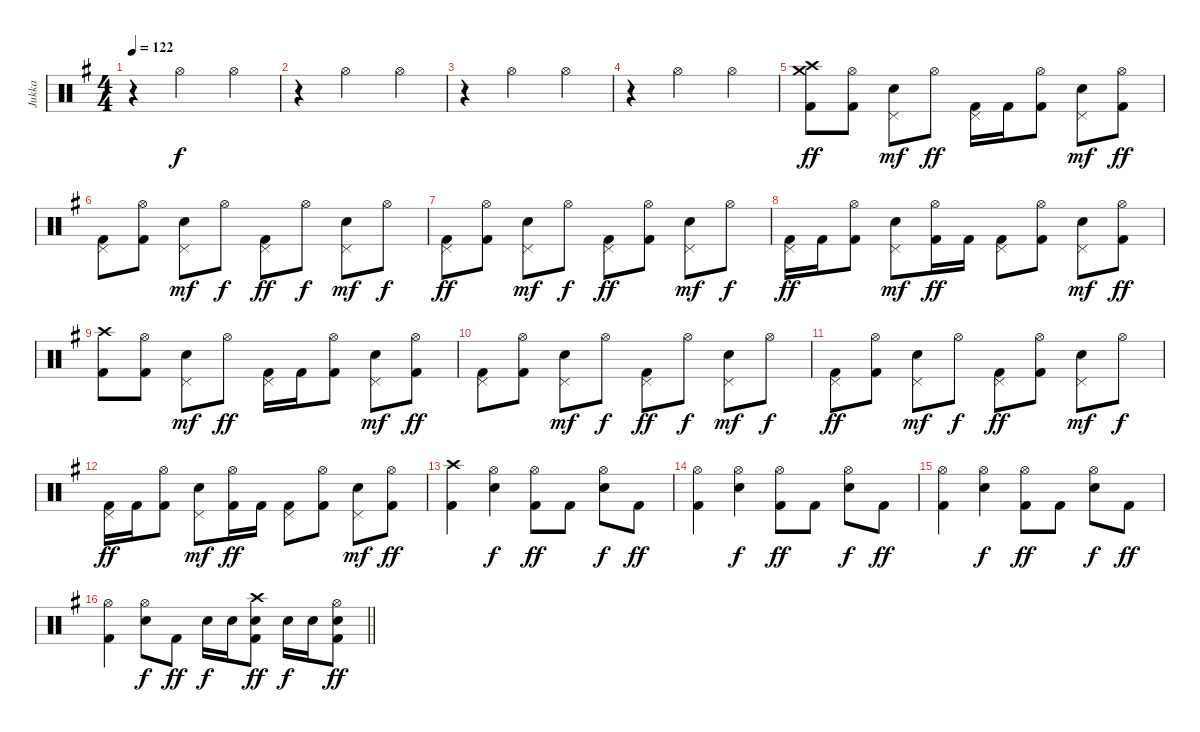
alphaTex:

\track ("Jukka" "Jukka") {instrument percussion}
\staff {score}
\articulation defaults
\ts (4 4)
\tempo 122
\clef neutral
\ks g
r.4{dy ff} "Hi-Hat (open)".2{dy f} "Hi-Hat (open)".4 |
r.4 "Hi-Hat (open)".2 "Hi-Hat (open)".4 |
r.4 "Hi-Hat (open)".2 "Hi-Hat (open)".4 |
r.4 "Hi-Hat (open)".2 "Hi-Hat (open)".4 |
("Crash medium (hit)" "Crash high (hit)" "Kick (hit) 2").8{dy ff} ("Hi-Hat (open)" "Kick (hit) 2").8 ("Pedal Hi-Hat (hit)" "Electric Snare (hit)").8{dy mf} "Hi-Hat (open)".8{dy ff} ("Pedal Hi-Hat (hit)" "Kick (hit) 2").16 "Kick (hit) 2".16 ("Hi-Hat (open)" "Kick (hit) 2").8 ("Pedal Hi-Hat (hit)" "Electric Snare (hit)").8{dy mf} ("Hi-Hat (open)" "Kick (hit) 2").8{dy ff} |
("Pedal Hi-Hat (hit)" "Kick (hit) 2").8 ("Hi-Hat (open)" "Kick (hit) 2").8 ("Pedal Hi-Hat (hit)" "Electric Snare (hit)").8{dy mf} "Hi-Hat (open)".8{dy f} ("Pedal Hi-Hat (hit)" "Kick (hit) 2").8{dy ff} "Hi-Hat (open)".8{dy f} ("Pedal Hi-Hat (hit)" "Electric Snare (hit)").8{dy mf} "Hi-Hat (open)".8{dy f} |
("Pedal Hi-Hat (hit)" "Kick (hit) 2").8{dy ff} ("Hi-Hat (open)" "Kick (hit) 2").8 ("Pedal Hi-Hat (hit)" "Electric Snare (hit)").8{dy mf} "Hi-Hat (open)".8{dy f} ("Pedal Hi-Hat (hit)" "Kick (hit) 2").8{dy ff} ("Hi-Hat (open)" "Kick (hit) 2").8 ("Pedal Hi-Hat (hit)" "Electric Snare (hit)").8{dy mf} "Hi-Hat (open)".8{dy f} |
("Pedal Hi-Hat (hit)" "Kick (hit) 2").16{dy ff} "Kick (hit) 2".16 ("Hi-Hat (open)" "Kick (hit) 2").8 ("Pedal Hi-Hat (hit)" "Electric Snare (hit)").8{dy mf} ("Hi-Hat (open)" "Kick (hit) 2").16{dy ff} "Kick (hit) 2".16 ("Pedal Hi-Hat (hit)" "Kick (hit) 2").8 ("Hi-Hat (open)" "Kick (hit) 2").8 ("Pedal Hi-Hat (hit)" "Electric Snare (hit)").8{dy mf} ("Hi-Hat (open)" "Kick (hit) 2").8{dy ff} |
("Crash high (hit)" "Kick (hit) 2").8 ("Hi-Hat (open)" "Kick (hit) 2").8 ("Pedal Hi-Hat (hit)" "Electric Snare (hit)").8{dy mf} "Hi-Hat (open)".8{dy ff} ("Pedal Hi-Hat (hit)" "Kick (hit) 2").16 "Kick (hit) 2".16 ("Hi-Hat (open)" "Kick (hit) 2").8 ("Pedal Hi-Hat (hit)" "Electric Snare (hit)").8{dy mf} ("Hi-Hat (open)" "Kick (hit) 2").8{dy ff} |
("Pedal Hi-Hat (hit)" "Kick (hit) 2").8 ("Hi-Hat (open)" "Kick (hit) 2").8 ("Pedal Hi-Hat (hit)" "Electric Snare (hit)").8{dy mf} "Hi-Hat (open)".8{dy f} ("Pedal Hi-Hat (hit)" "Kick (hit) 2").8{dy ff} "Hi-Hat (open)".8{dy f} ("Pedal Hi-Hat (hit)" "Electric Snare (hit)").8{dy mf} "Hi-Hat (open)".8{dy f} |
("Pedal Hi-Hat (hit)" "Kick (hit) 2").8{dy ff} ("Hi-Hat (open)" "Kick (hit) 2").8 ("Pedal Hi-Hat (hit)" "Electric Snare (hit)").8{dy mf} "Hi-Hat (open)".8{dy f} ("Pedal Hi-Hat (hit)" "Kick (hit) 2").8{dy ff} ("Hi-Hat (open)" "Kick (hit) 2").8 ("Pedal Hi-Hat (hit)" "Electric Snare (hit)").8{dy mf} "Hi-Hat (open)".8{dy f} |
("Pedal Hi-Hat (hit)" "Kick (hit) 2").16{dy ff} "Kick (hit) 2".16 ("Hi-Hat (open)" "Kick (hit) 2").8 ("Pedal Hi-Hat (hit)" "Electric Snare (hit)").8{dy mf} ("Hi-Hat (open)" "Kick (hit) 2").16{dy ff} "Kick (hit) 2".16 ("Pedal Hi-Hat (hit)" "Kick (hit) 2").8 ("Hi-Hat (open)" "Kick (hit) 2").8 ("Pedal Hi-Hat (hit)" "Electric Snare (hit)").8{dy mf} ("Hi-Hat (open)" "Kick (hit) 2").8{dy ff} |
("Crash high (hit)" "Kick (hit) 2").4 ("Hi-Hat (open)" "Electric Snare (hit)").4{dy f} ("Hi-Hat (open)" "Kick (hit) 2").8{dy ff} "Kick (hit) 2".8 ("Hi-Hat (open)" "Electric Snare (hit)").8{dy f} "Kick (hit) 2".8{dy ff} |
("Hi-Hat (open)" "Kick (hit) 2").4 ("Hi-Hat (open)" "Electric Snare (hit)").4{dy f} ("Hi-Hat (open)" "Kick (hit) 2").8{dy ff} "Kick (hit) 2".8 ("Hi-Hat (open)" "Electric Snare (hit)").8{dy f} "Kick (hit) 2".8{dy ff} |
("Hi-Hat (open)" "Kick (hit) 2").4 ("Hi-Hat (open)" "Electric Snare (hit)").4{dy f} ("Hi-Hat (open)" "Kick (hit) 2").8{dy ff} "Kick (hit) 2".8 ("Hi-Hat (open)" "Electric Snare (hit)").8{dy f} "Kick (hit) 2".8{dy ff} |
\barLineRight lightlight
("Hi-Hat (open)" "Kick (hit) 2").4 ("Hi-Hat (open)" "Electric Snare (hit)").8{dy f} "Kick (hit) 2".8{dy ff} "Electric Snare (hit)".16{dy f} "Electric Snare (hit)".16 ("Crash high (hit)" "Electric Snare (hit)" "Kick (hit) 2").8{dy ff} "Electric Snare (hit)".16{dy f} "Electric Snare (hit)".16 ("Hi-Hat (open)" "Electric Snare (hit)" "Kick (hit) 2").8{dy ff}
